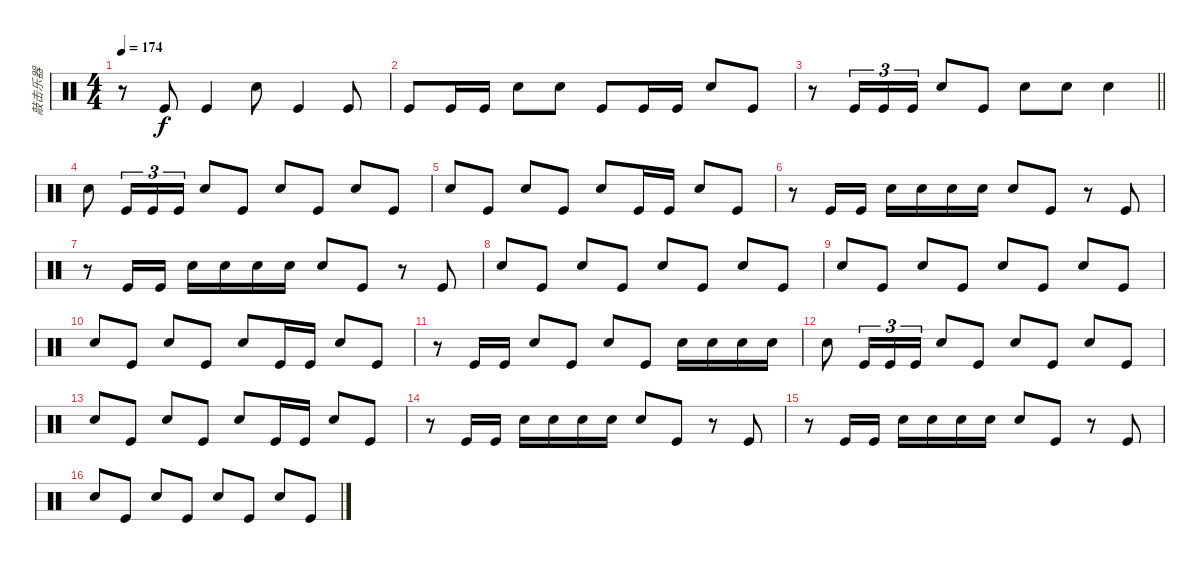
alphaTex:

\track ("敲击乐器" "敲击乐器") {instrument percussion}
\staff {score}
\articulation defaults
\ts (4 4)
\tempo 174
\clef neutral
\ks c
r.8{dy f} "Kick (hit)".8 "Kick (hit)".4 "Snare (hit) 2".8 "Kick (hit)".4 "Kick (hit)".8 |
"Kick (hit)".8 "Kick (hit)".16 "Kick (hit)".16 "Snare (hit) 2".8 "Snare (hit) 2".8 "Kick (hit)".8 "Kick (hit)".16 "Kick (hit)".16 "Snare (hit) 2".8 "Kick (hit)".8 |
\barLineRight lightlight
r.8 "Kick (hit)".16{tu (3 2)} "Kick (hit)".16{tu (3 2)} "Kick (hit)".16{tu (3 2)} "Snare (hit) 2".8 "Kick (hit)".8 "Snare (hit) 2".8 "Snare (hit) 2".8 "Snare (hit) 2".4 |
"Snare (hit) 2".8 "Kick (hit)".16{tu (3 2)} "Kick (hit)".16{tu (3 2)} "Kick (hit)".16{tu (3 2)} "Snare (hit) 2".8 "Kick (hit)".8 "Snare (hit) 2".8 "Kick (hit)".8 "Snare (hit) 2".8 "Kick (hit)".8 |
"Snare (hit) 2".8 "Kick (hit)".8 "Snare (hit) 2".8 "Kick (hit)".8 "Snare (hit) 2".8 "Kick (hit)".16 "Kick (hit)".16 "Snare (hit) 2".8 "Kick (hit)".8 |
r.8 "Kick (hit)".16 "Kick (hit)".16 "Snare (hit) 2".16 "Snare (hit) 2".16 "Snare (hit) 2".16 "Snare (hit) 2".16 "Snare (hit) 2".8 "Kick (hit)".8 r.8 "Kick (hit)".8 |
r.8 "Kick (hit)".16 "Kick (hit)".16 "Snare (hit) 2".16 "Snare (hit) 2".16 "Snare (hit) 2".16 "Snare (hit) 2".16 "Snare (hit) 2".8 "Kick (hit)".8 r.8 "Kick (hit)".8 |
"Snare (hit) 2".8 "Kick (hit)".8 "Snare (hit) 2".8 "Kick (hit)".8 "Snare (hit) 2".8 "Kick (hit)".8 "Snare (hit) 2".8 "Kick (hit)".8 |
"Snare (hit) 2".8 "Kick (hit)".8 "Snare (hit) 2".8 "Kick (hit)".8 "Snare (hit) 2".8 "Kick (hit)".8 "Snare (hit) 2".8 "Kick (hit)".8 |
"Snare (hit) 2".8 "Kick (hit)".8 "Snare (hit) 2".8 "Kick (hit)".8 "Snare (hit) 2".8 "Kick (hit)".16 "Kick (hit)".16 "Snare (hit) 2".8 "Kick (hit)".8 |
r.8 "Kick (hit)".16 "Kick (hit)".16 "Snare (hit) 2".8 "Kick (hit)".8 "Snare (hit) 2".8 "Kick (hit)".8 "Snare (hit) 2".16 "Snare (hit) 2".16 "Snare (hit) 2".16 "Snare (hit) 2".16 |
"Snare (hit) 2".8 "Kick (hit)".16{tu (3 2)} "Kick (hit)".16{tu (3 2)} "Kick (hit)".16{tu (3 2)} "Snare (hit) 2".8 "Kick (hit)".8 "Snare (hit) 2".8 "Kick (hit)".8 "Snare (hit) 2".8 "Kick (hit)".8 |
"Snare (hit) 2".8 "Kick (hit)".8 "Snare (hit) 2".8 "Kick (hit)".8 "Snare (hit) 2".8 "Kick (hit)".16 "Kick (hit)".16 "Snare (hit) 2".8 "Kick (hit)".8 |
r.8 "Kick (hit)".16 "Kick (hit)".16 "Snare (hit) 2".16 "Snare (hit) 2".16 "Snare (hit) 2".16 "Snare (hit) 2".16 "Snare (hit) 2".8 "Kick (hit)".8 r.8 "Kick (hit)".8 |
r.8 "Kick (hit)".16 "Kick (hit)".16 "Snare (hit) 2".16 "Snare (hit) 2".16 "Snare (hit) 2".16 "Snare (hit) 2".16 "Snare (hit) 2".8 "Kick (hit)".8 r.8 "Kick (hit)".8 |
"Snare (hit) 2".8 "Kick (hit)".8 "Snare (hit) 2".8 "Kick (hit)".8 "Snare (hit) 2".8 "Kick (hit)".8 "Snare (hit) 2".8 "Kick (hit)".8
